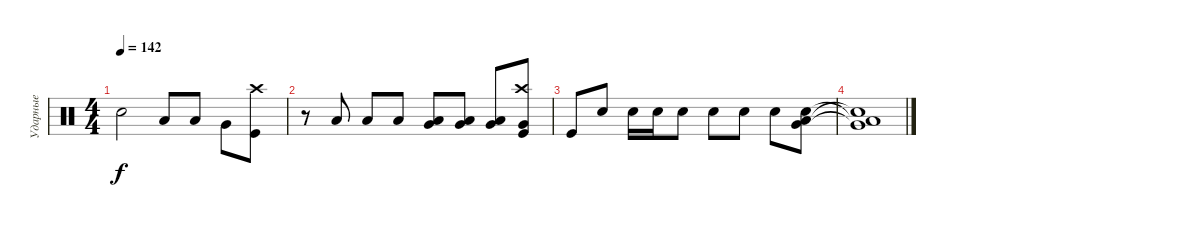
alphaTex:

\track ("Ударные" "Ударные") {instrument percussion}
\staff {score}
\articulation defaults
\ts (4 4)
\tempo 142
\clef neutral
\ks c "Snare (hit)"{t}.2{dy f} "Low Tom (hit)".8 "Low Tom (hit)".8 "Very Low Tom (hit)".8
("Crash high (hit)" "Kick (hit)").8 |
r.8 "Low Tom (hit)".8 "Low Tom (hit)".8 "Low Tom (hit)".8 ("Low Tom (hit)" "Very Low Tom (hit)").8 ("Low Tom (hit)" "Very Low Tom (hit)").8 ("Low Tom (hit)" "Very Low Tom (hit)").8 ("Crash high (hit)" "Very Low Tom (hit)" "Kick (hit)").8 |
"Kick (hit)".8 "Electric Snare (hit)".8 "Electric Snare (hit)".16 "Electric Snare (hit)".16 "Electric Snare (hit)".8 "Electric Snare (hit)".8 "Electric Snare (hit)".8 "Electric Snare (hit)".8 ("Very Low Tom (hit)" "Electric Snare (hit)" "Low Tom (hit)").8 |
("Very Low Tom (hit)"{t} "Low Tom (hit)"{t} "Snare (hit)"{t}).1
